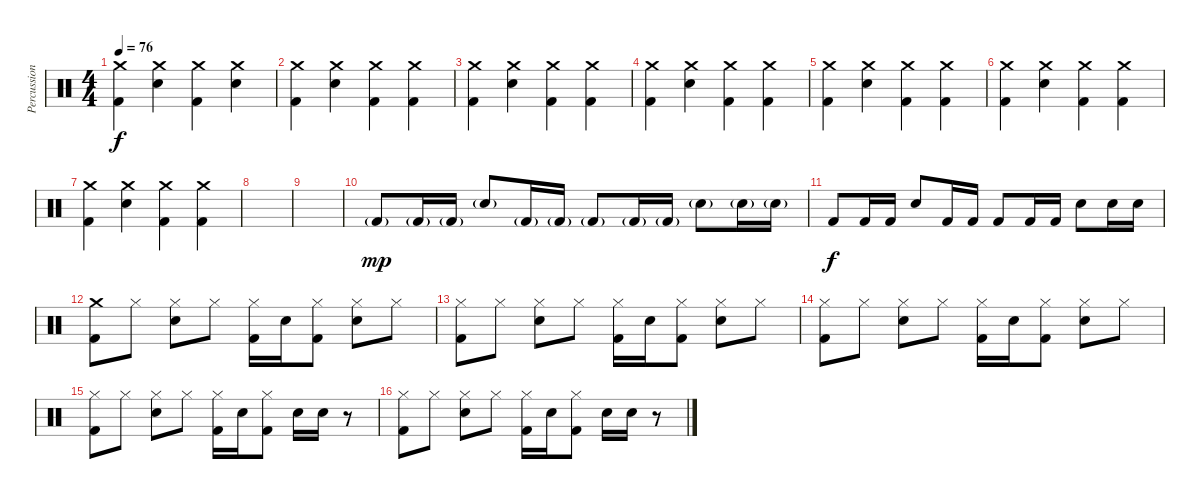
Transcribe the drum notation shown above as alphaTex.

\track ("Percussion" "Percussion") {instrument percussion}
\staff {score}
\articulation defaults
\ts (4 4)
\tempo 76
\clef neutral
\ks c
("Crash medium (hit)" "Kick (hit) 2").4{dy f} ("Crash medium (hit)" "Snare (hit) 2").4 ("Crash medium (hit)" "Kick (hit) 2").4 ("Crash medium (hit)" "Snare (hit) 2").4 |
("Crash medium (hit)" "Kick (hit) 2").4 ("Crash medium (hit)" "Snare (hit) 2").4 ("Crash medium (hit)" "Kick (hit) 2").4 ("Crash medium (hit)" "Kick (hit) 2").4 |
("Crash medium (hit)" "Kick (hit) 2").4 ("Crash medium (hit)" "Snare (hit) 2").4 ("Crash medium (hit)" "Kick (hit) 2").4 ("Crash medium (hit)" "Kick (hit) 2").4 |
("Crash medium (hit)" "Kick (hit) 2").4 ("Crash medium (hit)" "Snare (hit) 2").4 ("Crash medium (hit)" "Kick (hit) 2").4 ("Crash medium (hit)" "Kick (hit) 2").4 |
("Crash medium (hit)" "Kick (hit) 2").4 ("Crash medium (hit)" "Snare (hit) 2").4 ("Crash medium (hit)" "Kick (hit) 2").4 ("Crash medium (hit)" "Kick (hit) 2").4 |
("Crash medium (hit)" "Kick (hit) 2").4 ("Crash medium (hit)" "Snare (hit) 2").4 ("Crash medium (hit)" "Kick (hit) 2").4 ("Crash medium (hit)" "Kick (hit) 2").4 |
("Crash medium (hit)" "Kick (hit) 2").4 ("Crash medium (hit)" "Snare (hit) 2").4 ("Crash medium (hit)" "Kick (hit) 2").4 ("Crash medium (hit)" "Kick (hit) 2").4 |
|
|
"Kick (hit) 2"{g}.8{dy mp} "Kick (hit) 2"{g}.16 "Kick (hit) 2"{g}.16 "Snare (hit) 2"{g}.8 "Kick (hit) 2"{g}.16 "Kick (hit) 2"{g}.16 "Kick (hit) 2"{g}.8 "Kick (hit) 2"{g}.16 "Kick (hit) 2"{g}.16 "Snare (hit) 2"{g}.8 "Snare (hit) 2"{g}.16 "Snare (hit) 2"{g}.16 |
"Kick (hit) 2".8{dy f} "Kick (hit) 2".16 "Kick (hit) 2".16 "Snare (hit) 2".8 "Kick (hit) 2".16 "Kick (hit) 2".16 "Kick (hit) 2".8 "Kick (hit) 2".16 "Kick (hit) 2".16 "Snare (hit) 2".8 "Snare (hit) 2".16 "Snare (hit) 2".16 |
("Crash medium (hit)" "Kick (hit) 2").8 "Hi-Hat (closed)".8 ("Hi-Hat (closed)" "Snare (hit) 2").8 "Hi-Hat (closed)".8 ("Hi-Hat (closed)" "Kick (hit) 2").16 "Snare (hit) 2".16 ("Hi-Hat (closed)" "Kick (hit) 2").8 ("Hi-Hat (closed)" "Snare (hit) 2").8 "Hi-Hat (closed)".8 |
("Hi-Hat (closed)" "Kick (hit) 2").8 "Hi-Hat (closed)".8 ("Hi-Hat (closed)" "Snare (hit) 2").8 "Hi-Hat (closed)".8 ("Hi-Hat (closed)" "Kick (hit) 2").16 "Snare (hit) 2".16 ("Hi-Hat (closed)" "Kick (hit) 2").8 ("Hi-Hat (closed)" "Snare (hit) 2").8 "Hi-Hat (closed)".8 |
("Hi-Hat (closed)" "Kick (hit) 2").8 "Hi-Hat (closed)".8 ("Hi-Hat (closed)" "Snare (hit) 2").8 "Hi-Hat (closed)".8 ("Hi-Hat (closed)" "Kick (hit) 2").16 "Snare (hit) 2".16 ("Hi-Hat (closed)" "Kick (hit) 2").8 ("Hi-Hat (closed)" "Snare (hit) 2").8 "Hi-Hat (closed)".8 |
("Hi-Hat (closed)" "Kick (hit) 2").8 "Hi-Hat (closed)".8 ("Hi-Hat (closed)" "Snare (hit) 2").8 "Hi-Hat (closed)".8 ("Hi-Hat (closed)" "Kick (hit) 2").16 "Snare (hit) 2".16 ("Hi-Hat (closed)" "Kick (hit) 2").8 "Snare (hit) 2".16 "Snare (hit) 2".16 r.8 |
("Hi-Hat (closed)" "Kick (hit) 2").8 "Hi-Hat (closed)".8 ("Hi-Hat (closed)" "Snare (hit) 2").8 "Hi-Hat (closed)".8 ("Hi-Hat (closed)" "Kick (hit) 2").16 "Snare (hit) 2".16 ("Hi-Hat (closed)" "Kick (hit) 2").8 "Snare (hit) 2".16 "Snare (hit) 2".16 r.8
